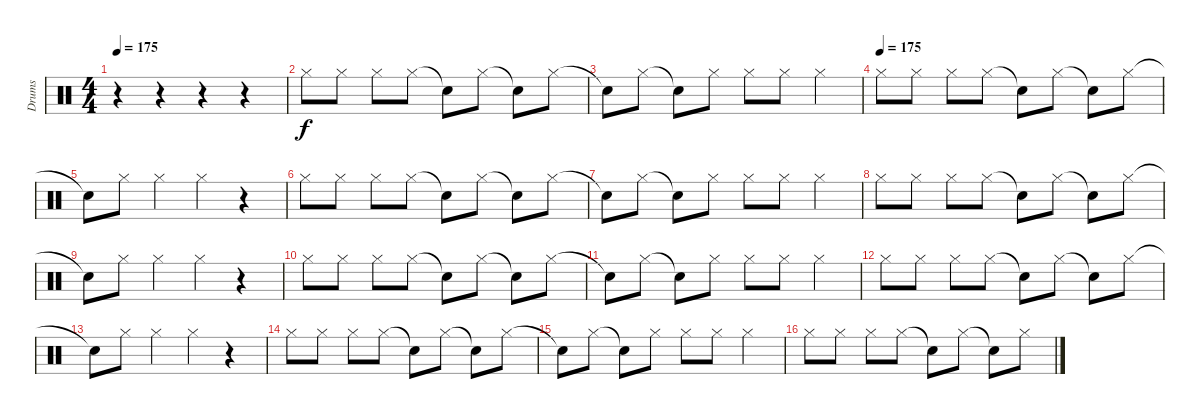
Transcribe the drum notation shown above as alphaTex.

\track ("Drums" "Drums") {instrument percussion}
\staff {score}
\articulation defaults
\ts (4 4)
\tempo 175
\clef neutral
\ks c
r.4{dy f} r.4 r.4 r.4 |
"Hi-Hat (closed)".8 "Hi-Hat (closed)".8 "Hi-Hat (closed)".8 "Hi-Hat (closed)".8 "Snare (hit)"{t}.8 "Hi-Hat (closed)".8 "Snare (hit)"{t}.8 "Hi-Hat (closed)".8 |
"Snare (hit)"{t}.8 "Hi-Hat (closed)".8 "Snare (hit)"{t}.8 "Hi-Hat (closed)".8 "Hi-Hat (closed)".8 "Hi-Hat (closed)".8 "Hi-Hat (closed)".4 |
\tempo (175)
"Hi-Hat (closed)".8 "Hi-Hat (closed)".8 "Hi-Hat (closed)".8 "Hi-Hat (closed)".8 "Snare (hit)"{t}.8 "Hi-Hat (closed)".8 "Snare (hit)"{t}.8 "Hi-Hat (closed)".8 |
"Snare (hit)"{t}.8 "Hi-Hat (closed)".8 "Hi-Hat (closed)".4 "Hi-Hat (closed)".4 r.4 |
"Hi-Hat (closed)".8 "Hi-Hat (closed)".8 "Hi-Hat (closed)".8 "Hi-Hat (closed)".8 "Snare (hit)"{t}.8 "Hi-Hat (closed)".8 "Snare (hit)"{t}.8 "Hi-Hat (closed)".8 |
"Snare (hit)"{t}.8 "Hi-Hat (closed)".8 "Snare (hit)"{t}.8 "Hi-Hat (closed)".8 "Hi-Hat (closed)".8 "Hi-Hat (closed)".8 "Hi-Hat (closed)".4 |
"Hi-Hat (closed)".8 "Hi-Hat (closed)".8 "Hi-Hat (closed)".8 "Hi-Hat (closed)".8 "Snare (hit)"{t}.8 "Hi-Hat (closed)".8 "Snare (hit)"{t}.8 "Hi-Hat (closed)".8 |
"Snare (hit)"{t}.8 "Hi-Hat (closed)".8 "Hi-Hat (closed)".4 "Hi-Hat (closed)".4 r.4 |
"Hi-Hat (closed)".8 "Hi-Hat (closed)".8 "Hi-Hat (closed)".8 "Hi-Hat (closed)".8 "Snare (hit)"{t}.8 "Hi-Hat (closed)".8 "Snare (hit)"{t}.8 "Hi-Hat (closed)".8 |
"Snare (hit)"{t}.8 "Hi-Hat (closed)".8 "Snare (hit)"{t}.8 "Hi-Hat (closed)".8 "Hi-Hat (closed)".8 "Hi-Hat (closed)".8 "Hi-Hat (closed)".4 |
"Hi-Hat (closed)".8 "Hi-Hat (closed)".8 "Hi-Hat (closed)".8 "Hi-Hat (closed)".8 "Snare (hit)"{t}.8 "Hi-Hat (closed)".8 "Snare (hit)"{t}.8 "Hi-Hat (closed)".8 |
"Snare (hit)"{t}.8 "Hi-Hat (closed)".8 "Hi-Hat (closed)".4 "Hi-Hat (closed)".4 r.4 |
"Hi-Hat (closed)".8 "Hi-Hat (closed)".8 "Hi-Hat (closed)".8 "Hi-Hat (closed)".8 "Snare (hit)"{t}.8 "Hi-Hat (closed)".8 "Snare (hit)"{t}.8 "Hi-Hat (closed)".8 |
"Snare (hit)"{t}.8 "Hi-Hat (closed)".8 "Snare (hit)"{t}.8 "Hi-Hat (closed)".8 "Hi-Hat (closed)".8 "Hi-Hat (closed)".8 "Hi-Hat (closed)".4 |
"Hi-Hat (closed)".8 "Hi-Hat (closed)".8 "Hi-Hat (closed)".8 "Hi-Hat (closed)".8 "Snare (hit)"{t}.8 "Hi-Hat (closed)".8 "Snare (hit)"{t}.8 "Hi-Hat (closed)".8
